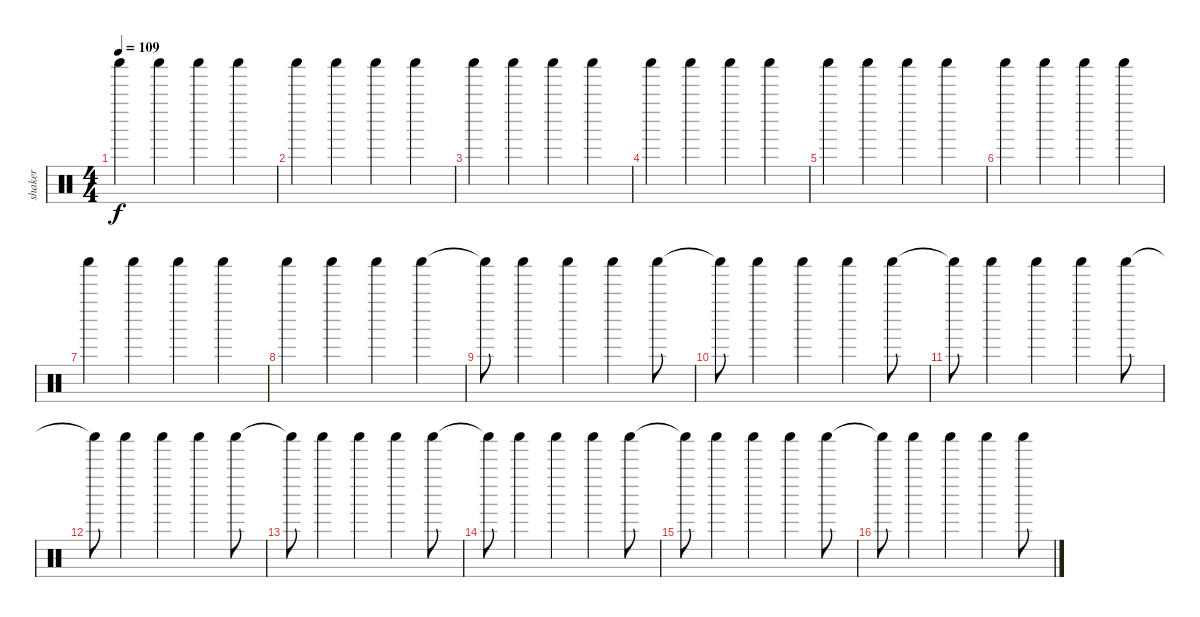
\track ("shaker" "shaker") {instrument percussion}
\staff {score}
\articulation defaults
\ts (4 4)
\tempo 109
\clef neutral
\ks c "Shaker (hit)".4{dy f} "Shaker (hit)".4 "Shaker (hit)".4 "Shaker (hit)".4
|
"Shaker (hit)".4 "Shaker (hit)".4 "Shaker (hit)".4 "Shaker (hit)".4 |
"Shaker (hit)".4 "Shaker (hit)".4 "Shaker (hit)".4 "Shaker (hit)".4 |
"Shaker (hit)".4 "Shaker (hit)".4 "Shaker (hit)".4 "Shaker (hit)".4 |
"Shaker (hit)".4 "Shaker (hit)".4 "Shaker (hit)".4 "Shaker (hit)".4 |
"Shaker (hit)".4 "Shaker (hit)".4 "Shaker (hit)".4 "Shaker (hit)".4 |
"Shaker (hit)".4 "Shaker (hit)".4 "Shaker (hit)".4 "Shaker (hit)".4 |
"Shaker (hit)".4 "Shaker (hit)".4 "Shaker (hit)".4 "Shaker (hit)".4 |
"Shaker (hit)"{t}.8 "Shaker (hit)".4 "Shaker (hit)".4 "Shaker (hit)".4 "Shaker (hit)".8 |
"Shaker (hit)"{t}.8 "Shaker (hit)".4 "Shaker (hit)".4 "Shaker (hit)".4 "Shaker (hit)".8 |
"Shaker (hit)"{t}.8 "Shaker (hit)".4 "Shaker (hit)".4 "Shaker (hit)".4 "Shaker (hit)".8 |
"Shaker (hit)"{t}.8 "Shaker (hit)".4 "Shaker (hit)".4 "Shaker (hit)".4 "Shaker (hit)".8 |
"Shaker (hit)"{t}.8 "Shaker (hit)".4 "Shaker (hit)".4 "Shaker (hit)".4 "Shaker (hit)".8 |
"Shaker (hit)"{t}.8 "Shaker (hit)".4 "Shaker (hit)".4 "Shaker (hit)".4 "Shaker (hit)".8 |
"Shaker (hit)"{t}.8 "Shaker (hit)".4 "Shaker (hit)".4 "Shaker (hit)".4 "Shaker (hit)".8 |
"Shaker (hit)"{t}.8 "Shaker (hit)".4 "Shaker (hit)".4 "Shaker (hit)".4 "Shaker (hit)".8
